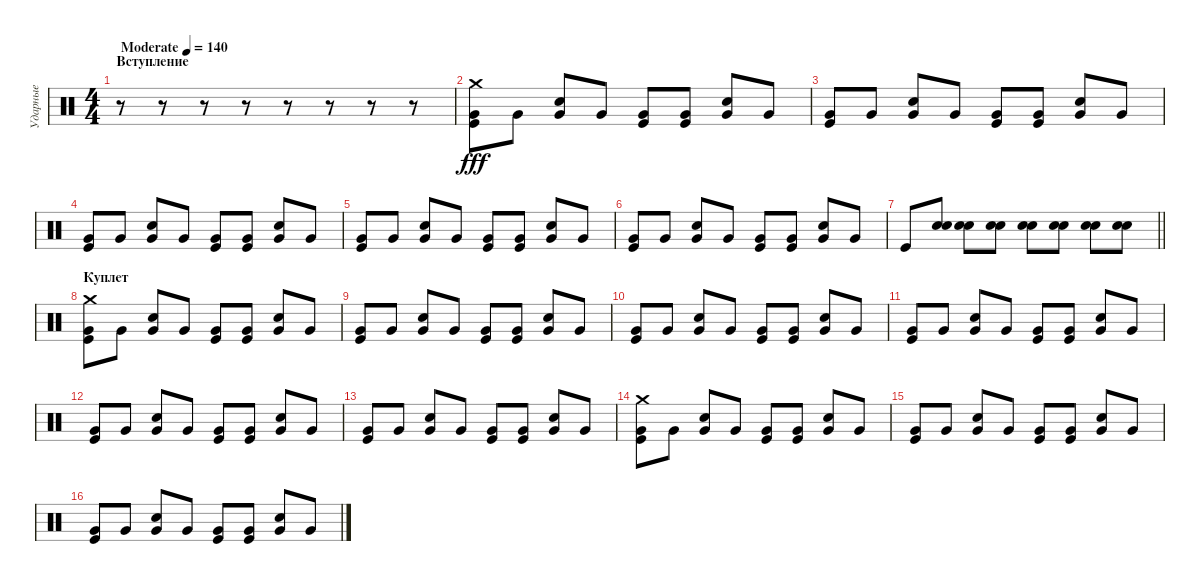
\track ("Ударные" "Ударные") {instrument percussion}
\staff {score}
\articulation defaults
\ts (4 4)
\section ("" "Вступление")
\tempo (140 "Moderate")
\clef neutral
\ks c
r.8{dy fff} r.8 r.8 r.8 r.8 r.8 r.8 r.8 |
("Crash medium (hit)" "Kick (hit)" "Very Low Tom (hit)").8 "Very Low Tom (hit)".8 ("Electric Snare (hit)" "Very Low Tom (hit)").8 "Very Low Tom (hit)".8 ("Kick (hit)" "Very Low Tom (hit)").8 ("Kick (hit)" "Very Low Tom (hit)").8 ("Electric Snare (hit)" "Very Low Tom (hit)").8 "Very Low Tom (hit)".8 |
("Kick (hit)" "Very Low Tom (hit)").8 "Very Low Tom (hit)".8 ("Snare (hit) 2" "Very Low Tom (hit)").8 "Very Low Tom (hit)".8 ("Kick (hit)" "Very Low Tom (hit)").8 ("Kick (hit)" "Very Low Tom (hit)").8 ("Electric Snare (hit)" "Very Low Tom (hit)").8 "Very Low Tom (hit)".8 |
("Kick (hit)" "Very Low Tom (hit)").8 "Very Low Tom (hit)".8 ("Electric Snare (hit)" "Very Low Tom (hit)").8 "Very Low Tom (hit)".8 ("Kick (hit)" "Very Low Tom (hit)").8 ("Kick (hit)" "Very Low Tom (hit)").8 ("Electric Snare (hit)" "Very Low Tom (hit)").8 "Very Low Tom (hit)".8 |
("Kick (hit)" "Very Low Tom (hit)").8 "Very Low Tom (hit)".8 ("Electric Snare (hit)" "Very Low Tom (hit)").8 "Very Low Tom (hit)".8 ("Kick (hit)" "Very Low Tom (hit)").8 ("Kick (hit)" "Very Low Tom (hit)").8 ("Electric Snare (hit)" "Very Low Tom (hit)").8 "Very Low Tom (hit)".8 |
("Kick (hit)" "Very Low Tom (hit)").8 "Very Low Tom (hit)".8 ("Electric Snare (hit)" "Very Low Tom (hit)").8 "Very Low Tom (hit)".8 ("Kick (hit)" "Very Low Tom (hit)").8 ("Kick (hit)" "Very Low Tom (hit)").8 ("Electric Snare (hit)" "Very Low Tom (hit)").8 "Very Low Tom (hit)".8 |
\barLineRight lightlight "Kick (hit)".8
("Snare (hit) 2" "Electric Snare (hit)").8 ("Snare (hit) 2" "Electric Snare (hit)").8 ("Snare (hit) 2" "Electric Snare (hit)").8 ("Snare (hit) 2" "Electric Snare (hit)").8 ("Snare (hit) 2" "Electric Snare (hit)").8 ("Snare (hit) 2" "Electric Snare (hit)").8 ("Snare (hit) 2" "Electric Snare (hit)").8 |
\section ("" "Куплет")
("Crash medium (hit)" "Kick (hit)" "Very Low Tom (hit)").8 "Very Low Tom (hit)".8 ("Electric Snare (hit)" "Very Low Tom (hit)").8 "Very Low Tom (hit)".8 ("Kick (hit)" "Very Low Tom (hit)").8 ("Kick (hit)" "Very Low Tom (hit)").8 ("Electric Snare (hit)" "Very Low Tom (hit)").8 "Very Low Tom (hit)".8 |
("Kick (hit)" "Very Low Tom (hit)").8 "Very Low Tom (hit)".8 ("Electric Snare (hit)" "Very Low Tom (hit)").8 "Very Low Tom (hit)".8 ("Kick (hit)" "Very Low Tom (hit)").8 ("Kick (hit)" "Very Low Tom (hit)").8 ("Electric Snare (hit)" "Very Low Tom (hit)").8 "Very Low Tom (hit)".8 |
("Kick (hit)" "Very Low Tom (hit)").8 "Very Low Tom (hit)".8 ("Electric Snare (hit)" "Very Low Tom (hit)").8 "Very Low Tom (hit)".8 ("Kick (hit)" "Very Low Tom (hit)").8 ("Kick (hit)" "Very Low Tom (hit)").8 ("Electric Snare (hit)" "Very Low Tom (hit)").8 "Very Low Tom (hit)".8 |
("Kick (hit)" "Very Low Tom (hit)").8 "Very Low Tom (hit)".8 ("Electric Snare (hit)" "Very Low Tom (hit)").8 "Very Low Tom (hit)".8 ("Kick (hit)" "Very Low Tom (hit)").8 ("Kick (hit)" "Very Low Tom (hit)").8 ("Electric Snare (hit)" "Very Low Tom (hit)").8 "Very Low Tom (hit)".8 |
("Kick (hit)" "Very Low Tom (hit)").8 "Very Low Tom (hit)".8 ("Electric Snare (hit)" "Very Low Tom (hit)").8 "Very Low Tom (hit)".8 ("Kick (hit)" "Very Low Tom (hit)").8 ("Kick (hit)" "Very Low Tom (hit)").8 ("Electric Snare (hit)" "Very Low Tom (hit)").8 "Very Low Tom (hit)".8 |
("Kick (hit)" "Very Low Tom (hit)").8 "Very Low Tom (hit)".8 ("Electric Snare (hit)" "Very Low Tom (hit)").8 "Very Low Tom (hit)".8 ("Kick (hit)" "Very Low Tom (hit)").8 ("Kick (hit)" "Very Low Tom (hit)").8 ("Electric Snare (hit)" "Very Low Tom (hit)").8 "Very Low Tom (hit)".8 |
("Crash medium (hit)" "Kick (hit)" "Very Low Tom (hit)").8 "Very Low Tom (hit)".8 ("Electric Snare (hit)" "Very Low Tom (hit)").8 "Very Low Tom (hit)".8 ("Kick (hit)" "Very Low Tom (hit)").8 ("Kick (hit)" "Very Low Tom (hit)").8 ("Electric Snare (hit)" "Very Low Tom (hit)").8 "Very Low Tom (hit)".8 |
("Kick (hit)" "Very Low Tom (hit)").8 "Very Low Tom (hit)".8 ("Electric Snare (hit)" "Very Low Tom (hit)").8 "Very Low Tom (hit)".8 ("Kick (hit)" "Very Low Tom (hit)").8 ("Kick (hit)" "Very Low Tom (hit)").8 ("Electric Snare (hit)" "Very Low Tom (hit)").8 "Very Low Tom (hit)".8 |
("Kick (hit)" "Very Low Tom (hit)").8 "Very Low Tom (hit)".8 ("Electric Snare (hit)" "Very Low Tom (hit)").8 "Very Low Tom (hit)".8 ("Kick (hit)" "Very Low Tom (hit)").8 ("Kick (hit)" "Very Low Tom (hit)").8 ("Electric Snare (hit)" "Very Low Tom (hit)").8 "Very Low Tom (hit)".8
